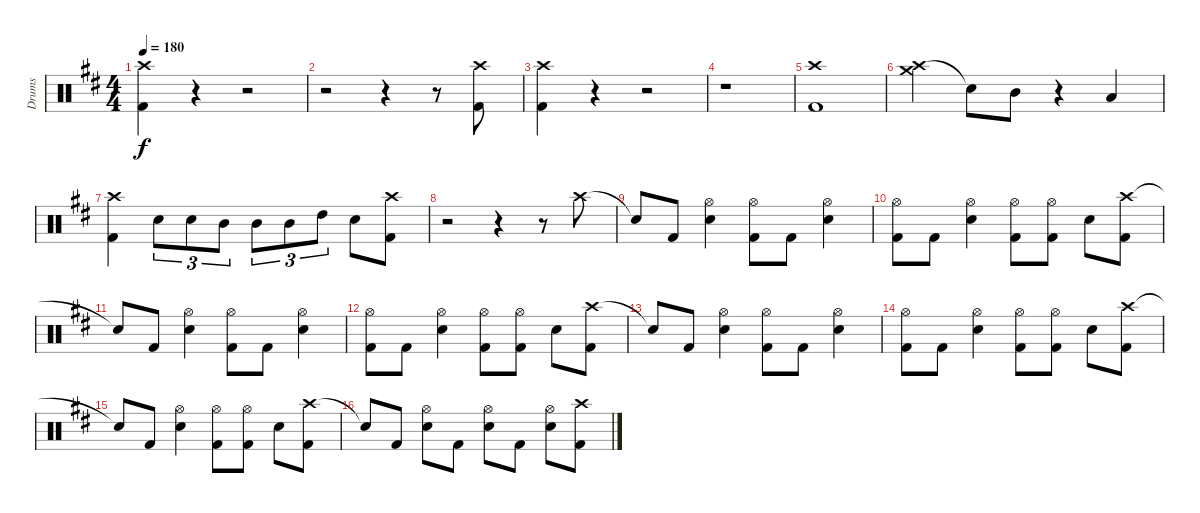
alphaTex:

\track ("Drums" "Drums") {instrument percussion}
\staff {score}
\articulation defaults
\ts (4 4)
\tempo 180
\clef neutral
\ks bminor
("Crash high (hit)" "Kick (hit) 2").4{dy f} r.4 r.2 |
r.2 r.4 r.8 ("Crash high (hit)" "Kick (hit) 2").8 |
("Crash high (hit)" "Kick (hit) 2").4 r.4 r.2 |
r.1 |
("Crash high (hit)" "Kick (hit) 2").1 |
("Crash high (hit)" "Crash medium (hit)").4 "Snare (hit)"{t}.8 "Mid Tom (hit)".8 r.4 "Low Tom (hit)".4 |
("Crash high (hit)" "Kick (hit) 2").4 "Electric Snare (hit)".8{tu (3 2)} "Electric Snare (hit)".8{tu (3 2)} "Mid Tom (hit)".8{tu (3 2)} "Mid Tom (hit)".8{tu (3 2)} "Mid Tom (hit)".8{tu (3 2)} "High Tom (hit)".8{tu (3 2)} "Electric Snare (hit)".8 ("Crash high (hit)" "Kick (hit) 2").8 |
r.2 r.4 r.8 "Crash high (hit)".8 |
"Snare (hit)"{t}.8 "Kick (hit) 2".8 ("Hi-Hat (open)" "Electric Snare (hit)").4 ("Hi-Hat (open)" "Kick (hit) 2").8 "Kick (hit) 2".8 ("Hi-Hat (open)" "Electric Snare (hit)").4 |
("Hi-Hat (open)" "Kick (hit) 2").8 "Kick (hit) 2".8 ("Hi-Hat (open)" "Electric Snare (hit)").4 ("Hi-Hat (open)" "Kick (hit) 2").8 ("Hi-Hat (open)" "Kick (hit) 2").8 "Electric Snare (hit)".8 ("Crash high (hit)" "Kick (hit) 2").8 |
"Snare (hit)"{t}.8 "Kick (hit) 2".8 ("Hi-Hat (open)" "Electric Snare (hit)").4 ("Hi-Hat (open)" "Kick (hit) 2").8 "Kick (hit) 2".8 ("Hi-Hat (open)" "Electric Snare (hit)").4 |
("Hi-Hat (open)" "Kick (hit) 2").8 "Kick (hit) 2".8 ("Hi-Hat (open)" "Electric Snare (hit)").4 ("Hi-Hat (open)" "Kick (hit) 2").8 ("Hi-Hat (open)" "Kick (hit) 2").8 "Electric Snare (hit)".8 ("Crash high (hit)" "Kick (hit) 2").8 |
"Snare (hit)"{t}.8 "Kick (hit) 2".8 ("Hi-Hat (open)" "Electric Snare (hit)").4 ("Hi-Hat (open)" "Kick (hit) 2").8 "Kick (hit) 2".8 ("Hi-Hat (open)" "Electric Snare (hit)").4 |
("Hi-Hat (open)" "Kick (hit) 2").8 "Kick (hit) 2".8 ("Hi-Hat (open)" "Electric Snare (hit)").4 ("Hi-Hat (open)" "Kick (hit) 2").8 ("Hi-Hat (open)" "Kick (hit) 2").8 "Electric Snare (hit)".8 ("Crash high (hit)" "Kick (hit) 2").8 |
"Snare (hit)"{t}.8 "Kick (hit) 2".8 ("Hi-Hat (open)" "Electric Snare (hit)").4 ("Hi-Hat (open)" "Kick (hit) 2").8 ("Hi-Hat (open)" "Kick (hit) 2").8 "Electric Snare (hit)".8 ("Crash high (hit)" "Kick (hit) 2").8 |
"Snare (hit)"{t}.8 "Kick (hit) 2".8 ("Hi-Hat (open)" "Electric Snare (hit)").8 "Kick (hit) 2".8 ("Hi-Hat (open)" "Electric Snare (hit)").8 "Kick (hit) 2".8 ("Hi-Hat (open)" "Electric Snare (hit)").8 ("Crash high (hit)" "Kick (hit) 2").8
